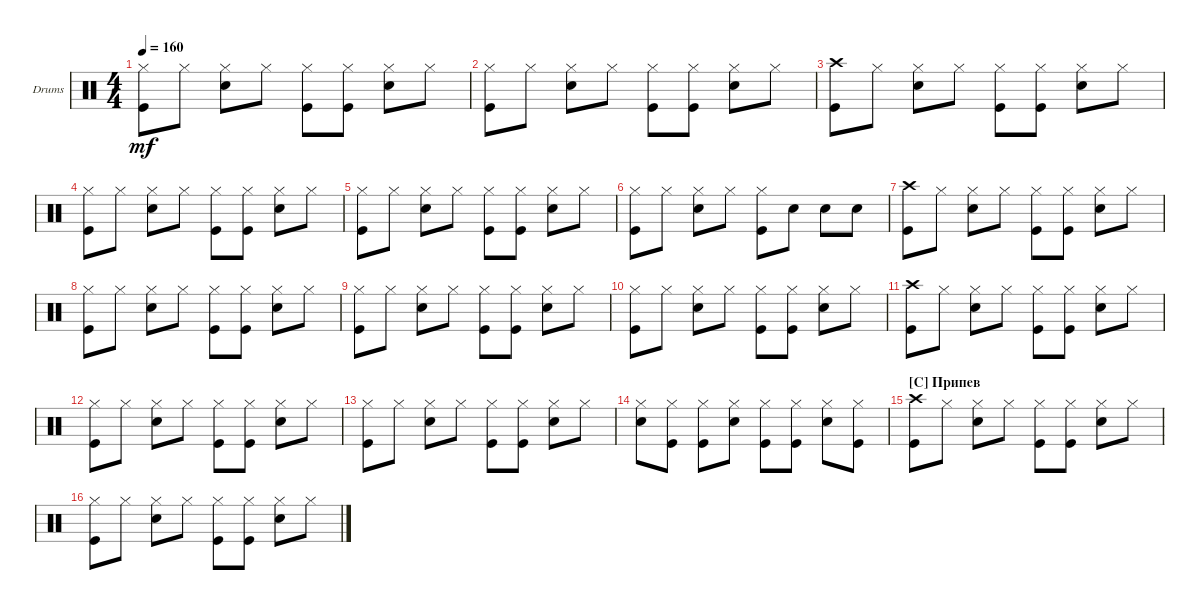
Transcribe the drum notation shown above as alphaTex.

\bracketExtendMode groupsimilarinstruments
\firstSystemTrackNameOrientation horizontal
\otherSystemsTrackNameOrientation horizontal
\track ("Drumkit" "Drums") {instrument percussion}
\staff {score}
\articulation defaults
\ts (4 4)
\tempo 160
\clef neutral
\ks c
("Kick (hit)" "Hi-Hat (closed)").8{dy mf} "Hi-Hat (closed)".8 ("Hi-Hat (closed)" "Snare (hit) 2").8 "Hi-Hat (closed)".8 ("Kick (hit)" "Hi-Hat (closed)").8 ("Hi-Hat (closed)" "Kick (hit)").8 ("Hi-Hat (closed)" "Snare (hit) 2").8 "Hi-Hat (closed)".8 |
("Kick (hit)" "Hi-Hat (closed)").8 "Hi-Hat (closed)".8 ("Hi-Hat (closed)" "Snare (hit) 2").8 "Hi-Hat (closed)".8 ("Kick (hit)" "Hi-Hat (closed)").8 ("Hi-Hat (closed)" "Kick (hit)").8 ("Hi-Hat (closed)" "Snare (hit) 2").8 "Hi-Hat (closed)".8 |
("Kick (hit)" "Crash high (hit)").8 "Hi-Hat (closed)".8 ("Hi-Hat (closed)" "Snare (hit) 2").8 "Hi-Hat (closed)".8 ("Kick (hit)" "Hi-Hat (closed)").8 ("Hi-Hat (closed)" "Kick (hit)").8 ("Hi-Hat (closed)" "Snare (hit) 2").8 "Hi-Hat (closed)".8 |
("Kick (hit)" "Hi-Hat (closed)").8 "Hi-Hat (closed)".8 ("Hi-Hat (closed)" "Snare (hit) 2").8 "Hi-Hat (closed)".8 ("Kick (hit)" "Hi-Hat (closed)").8 ("Hi-Hat (closed)" "Kick (hit)").8 ("Hi-Hat (closed)" "Snare (hit) 2").8 "Hi-Hat (closed)".8 |
("Kick (hit)" "Hi-Hat (closed)").8 "Hi-Hat (closed)".8 ("Hi-Hat (closed)" "Snare (hit) 2").8 "Hi-Hat (closed)".8 ("Kick (hit)" "Hi-Hat (closed)").8 ("Hi-Hat (closed)" "Kick (hit)").8 ("Hi-Hat (closed)" "Snare (hit) 2").8 "Hi-Hat (closed)".8 |
("Kick (hit)" "Hi-Hat (closed)").8 "Hi-Hat (closed)".8 ("Hi-Hat (closed)" "Snare (hit) 2").8 "Hi-Hat (closed)".8 ("Kick (hit)" "Hi-Hat (closed)").8 "Snare (hit) 2".8 "Snare (hit) 2".8 "Snare (hit) 2".8 |
("Kick (hit)" "Crash high (hit)").8 "Hi-Hat (closed)".8 ("Hi-Hat (closed)" "Snare (hit) 2").8 "Hi-Hat (closed)".8 ("Kick (hit)" "Hi-Hat (closed)").8 ("Hi-Hat (closed)" "Kick (hit)").8 ("Hi-Hat (closed)" "Snare (hit) 2").8 "Hi-Hat (closed)".8 |
("Kick (hit)" "Hi-Hat (closed)").8 "Hi-Hat (closed)".8 ("Hi-Hat (closed)" "Snare (hit) 2").8 "Hi-Hat (closed)".8 ("Kick (hit)" "Hi-Hat (closed)").8 ("Hi-Hat (closed)" "Kick (hit)").8 ("Hi-Hat (closed)" "Snare (hit) 2").8 "Hi-Hat (closed)".8 |
("Kick (hit)" "Hi-Hat (closed)").8 "Hi-Hat (closed)".8 ("Hi-Hat (closed)" "Snare (hit) 2").8 "Hi-Hat (closed)".8 ("Kick (hit)" "Hi-Hat (closed)").8 ("Hi-Hat (closed)" "Kick (hit)").8 ("Hi-Hat (closed)" "Snare (hit) 2").8 "Hi-Hat (closed)".8 |
("Kick (hit)" "Hi-Hat (closed)").8 "Hi-Hat (closed)".8 ("Hi-Hat (closed)" "Snare (hit) 2").8 "Hi-Hat (closed)".8 ("Kick (hit)" "Hi-Hat (closed)").8 ("Hi-Hat (closed)" "Kick (hit)").8 ("Hi-Hat (closed)" "Snare (hit) 2").8 "Hi-Hat (closed)".8 |
("Kick (hit)" "Crash high (hit)").8 "Hi-Hat (closed)".8 ("Hi-Hat (closed)" "Snare (hit) 2").8 "Hi-Hat (closed)".8 ("Kick (hit)" "Hi-Hat (closed)").8 ("Hi-Hat (closed)" "Kick (hit)").8 ("Hi-Hat (closed)" "Snare (hit) 2").8 "Hi-Hat (closed)".8 |
("Kick (hit)" "Hi-Hat (closed)").8 "Hi-Hat (closed)".8 ("Hi-Hat (closed)" "Snare (hit) 2").8 "Hi-Hat (closed)".8 ("Kick (hit)" "Hi-Hat (closed)").8 ("Hi-Hat (closed)" "Kick (hit)").8 ("Hi-Hat (closed)" "Snare (hit) 2").8 "Hi-Hat (closed)".8 |
("Kick (hit)" "Hi-Hat (closed)").8 "Hi-Hat (closed)".8 ("Hi-Hat (closed)" "Snare (hit) 2").8 "Hi-Hat (closed)".8 ("Kick (hit)" "Hi-Hat (closed)").8 ("Hi-Hat (closed)" "Kick (hit)").8 ("Hi-Hat (closed)" "Snare (hit) 2").8 "Hi-Hat (closed)".8 |
("Hi-Hat (closed)" "Snare (hit) 2").8 ("Hi-Hat (closed)" "Kick (hit)").8 ("Hi-Hat (closed)" "Kick (hit)").8 ("Hi-Hat (closed)" "Snare (hit) 2").8 ("Kick (hit)" "Hi-Hat (closed)").8 ("Hi-Hat (closed)" "Kick (hit)").8 ("Hi-Hat (closed)" "Snare (hit) 2").8 ("Hi-Hat (closed)" "Kick (hit)").8 |
\section ("C" "Припев")
("Kick (hit)" "Crash high (hit)").8 "Hi-Hat (closed)".8 ("Hi-Hat (closed)" "Snare (hit) 2").8 "Hi-Hat (closed)".8 ("Kick (hit)" "Hi-Hat (closed)").8 ("Hi-Hat (closed)" "Kick (hit)").8 ("Hi-Hat (closed)" "Snare (hit) 2").8 "Hi-Hat (closed)".8 |
("Kick (hit)" "Hi-Hat (closed)").8 "Hi-Hat (closed)".8 ("Hi-Hat (closed)" "Snare (hit) 2").8 "Hi-Hat (closed)".8 ("Kick (hit)" "Hi-Hat (closed)").8 ("Hi-Hat (closed)" "Kick (hit)").8 ("Hi-Hat (closed)" "Snare (hit) 2").8 "Hi-Hat (closed)".8
